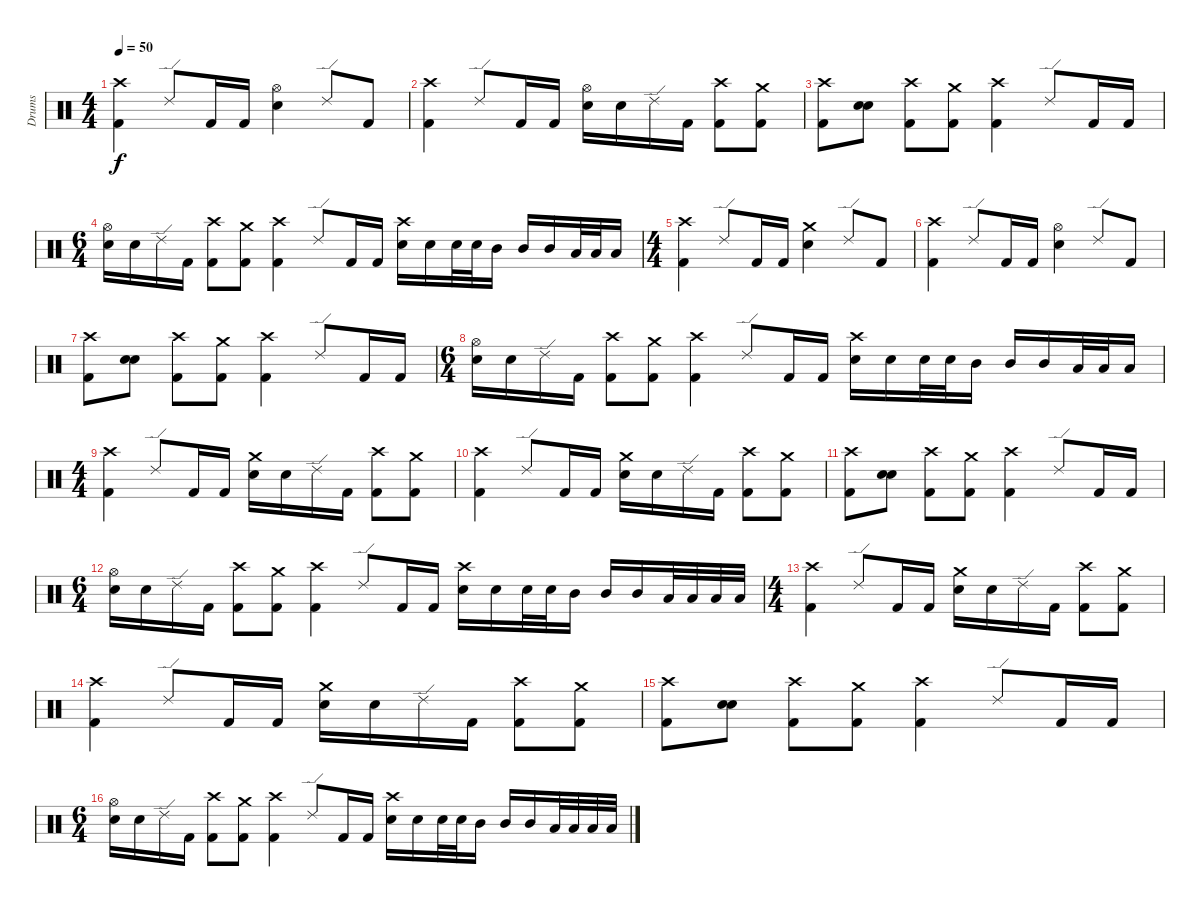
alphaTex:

\track ("Drums" "Drums") {instrument percussion}
\staff {score}
\articulation defaults
\ts (4 4)
\tempo 50
\clef neutral
\ks c
("Crash high (hit)" "Kick (hit) 2").4{dy f} "Ride (edge) 2".8 "Kick (hit) 2".16 "Kick (hit) 2".16 ("Hi-Hat (open)" "Electric Snare (hit)").4 "Ride (edge) 2".8 "Kick (hit) 2".8 |
("Crash high (hit)" "Kick (hit) 2").4 "Ride (edge) 2".8 "Kick (hit) 2".16 "Kick (hit) 2".16 ("Hi-Hat (open)" "Electric Snare (hit)").16 "Electric Snare (hit)".16 "Ride (edge) 2".16 "Kick (hit) 2".16 ("Crash high (hit)" "Kick (hit) 2").8 ("Crash medium (hit)" "Kick (hit) 2").8 |
("Crash high (hit)" "Kick (hit) 2").8 ("Electric Snare (hit)" "Electric Snare (hit)").8{bu 60} ("Crash high (hit)" "Kick (hit) 2").8 ("Crash medium (hit)" "Kick (hit) 2").8 ("Crash high (hit)" "Kick (hit) 2").4 "Ride (edge) 2".8 "Kick (hit) 2".16 "Kick (hit) 2".16 |
\ts (6 4)
("Hi-Hat (open)" "Electric Snare (hit)").16 "Electric Snare (hit)".16 "Ride (edge) 2".16 "Kick (hit) 2".16 ("Crash high (hit)" "Kick (hit) 2").8 ("Crash medium (hit)" "Kick (hit) 2").8 ("Crash high (hit)" "Kick (hit) 2").4 "Ride (edge) 2".8 "Kick (hit) 2".16 "Kick (hit) 2".16 ("Crash high (hit)" "Electric Snare (hit)").16 "Electric Snare (hit)".16 "Electric Snare (hit)".32 "Electric Snare (hit)".32 "Mid Tom (hit)".16 "Mid Tom (hit)".16 "Mid Tom (hit)".16 "Low Tom (hit)".32 "Low Tom (hit)".32 "Low Tom (hit)".16 |
\ts (4 4)
("Crash high (hit)" "Kick (hit) 2").4 "Ride (edge) 2".8 "Kick (hit) 2".16 "Kick (hit) 2".16 ("Crash medium (hit)" "Electric Snare (hit)").4 "Ride (edge) 2".8 "Kick (hit) 2".8 |
("Crash high (hit)" "Kick (hit) 2").4 "Ride (edge) 2".8 "Kick (hit) 2".16 "Kick (hit) 2".16 ("Hi-Hat (open)" "Electric Snare (hit)").4 "Ride (edge) 2".8 "Kick (hit) 2".8 |
("Crash high (hit)" "Kick (hit) 2").8 ("Electric Snare (hit)" "Electric Snare (hit)").8{bu 60} ("Crash high (hit)" "Kick (hit) 2").8 ("Crash medium (hit)" "Kick (hit) 2").8 ("Crash high (hit)" "Kick (hit) 2").4 "Ride (edge) 2".8 "Kick (hit) 2".16 "Kick (hit) 2".16 |
\ts (6 4)
("Hi-Hat (open)" "Electric Snare (hit)").16 "Electric Snare (hit)".16 "Ride (edge) 2".16 "Kick (hit) 2".16 ("Crash high (hit)" "Kick (hit) 2").8 ("Crash medium (hit)" "Kick (hit) 2").8 ("Crash high (hit)" "Kick (hit) 2").4 "Ride (edge) 2".8 "Kick (hit) 2".16 "Kick (hit) 2".16 ("Crash high (hit)" "Electric Snare (hit)").16 "Electric Snare (hit)".16 "Electric Snare (hit)".32 "Electric Snare (hit)".32 "Mid Tom (hit)".16 "Mid Tom (hit)".16 "Mid Tom (hit)".16 "Low Tom (hit)".32 "Low Tom (hit)".32 "Low Tom (hit)".16 |
\ts (4 4)
("Crash high (hit)" "Kick (hit) 2").4 "Ride (edge) 2".8 "Kick (hit) 2".16 "Kick (hit) 2".16 ("Crash medium (hit)" "Electric Snare (hit)").16 "Electric Snare (hit)".16 "Ride (edge) 2".16 "Kick (hit) 2".16 ("Crash high (hit)" "Kick (hit) 2").8 ("Crash medium (hit)" "Kick (hit) 2").8 |
("Crash high (hit)" "Kick (hit) 2").4 "Ride (edge) 2".8 "Kick (hit) 2".16 "Kick (hit) 2".16 ("Crash medium (hit)" "Electric Snare (hit)").16 "Electric Snare (hit)".16 "Ride (edge) 2".16 "Kick (hit) 2".16 ("Crash high (hit)" "Kick (hit) 2").8 ("Crash medium (hit)" "Kick (hit) 2").8 |
("Crash high (hit)" "Kick (hit) 2").8 ("Electric Snare (hit)" "Electric Snare (hit)").8{bu 60} ("Crash high (hit)" "Kick (hit) 2").8 ("Crash medium (hit)" "Kick (hit) 2").8 ("Crash high (hit)" "Kick (hit) 2").4 "Ride (edge) 2".8 "Kick (hit) 2".16 "Kick (hit) 2".16 |
\ts (6 4)
("Hi-Hat (open)" "Electric Snare (hit)").16 "Electric Snare (hit)".16 "Ride (edge) 2".16 "Kick (hit) 2".16 ("Crash high (hit)" "Kick (hit) 2").8 ("Crash medium (hit)" "Kick (hit) 2").8 ("Crash high (hit)" "Kick (hit) 2").4 "Ride (edge) 2".8 "Kick (hit) 2".16 "Kick (hit) 2".16 ("Crash high (hit)" "Electric Snare (hit)").16 "Electric Snare (hit)".16 "Electric Snare (hit)".32 "Electric Snare (hit)".32 "Mid Tom (hit)".16 "Mid Tom (hit)".16 "Mid Tom (hit)".16 "Low Tom (hit)".32 "Low Tom (hit)".32 "Low Tom (hit)".32 "Low Tom (hit)".32 |
\ts (4 4)
("Crash high (hit)" "Kick (hit) 2").4 "Ride (edge) 2".8 "Kick (hit) 2".16 "Kick (hit) 2".16 ("Crash medium (hit)" "Electric Snare (hit)").16 "Electric Snare (hit)".16 "Ride (edge) 2".16 "Kick (hit) 2".16 ("Crash high (hit)" "Kick (hit) 2").8 ("Crash medium (hit)" "Kick (hit) 2").8 |
("Crash high (hit)" "Kick (hit) 2").4 "Ride (edge) 2".8 "Kick (hit) 2".16 "Kick (hit) 2".16 ("Crash medium (hit)" "Electric Snare (hit)").16 "Electric Snare (hit)".16 "Ride (edge) 2".16 "Kick (hit) 2".16 ("Crash high (hit)" "Kick (hit) 2").8 ("Crash medium (hit)" "Kick (hit) 2").8 |
("Crash high (hit)" "Kick (hit) 2").8 ("Electric Snare (hit)" "Electric Snare (hit)").8{bu 60} ("Crash high (hit)" "Kick (hit) 2").8 ("Crash medium (hit)" "Kick (hit) 2").8 ("Crash high (hit)" "Kick (hit) 2").4 "Ride (edge) 2".8 "Kick (hit) 2".16 "Kick (hit) 2".16 |
\ts (6 4)
("Hi-Hat (open)" "Electric Snare (hit)").16 "Electric Snare (hit)".16 "Ride (edge) 2".16 "Kick (hit) 2".16 ("Crash high (hit)" "Kick (hit) 2").8 ("Crash medium (hit)" "Kick (hit) 2").8 ("Crash high (hit)" "Kick (hit) 2").4 "Ride (edge) 2".8 "Kick (hit) 2".16 "Kick (hit) 2".16 ("Crash high (hit)" "Electric Snare (hit)").16 "Electric Snare (hit)".16 "Electric Snare (hit)".32 "Electric Snare (hit)".32 "Mid Tom (hit)".16 "Mid Tom (hit)".16 "Mid Tom (hit)".16 "Low Tom (hit)".32 "Low Tom (hit)".32 "Low Tom (hit)".32 "Low Tom (hit)".32
